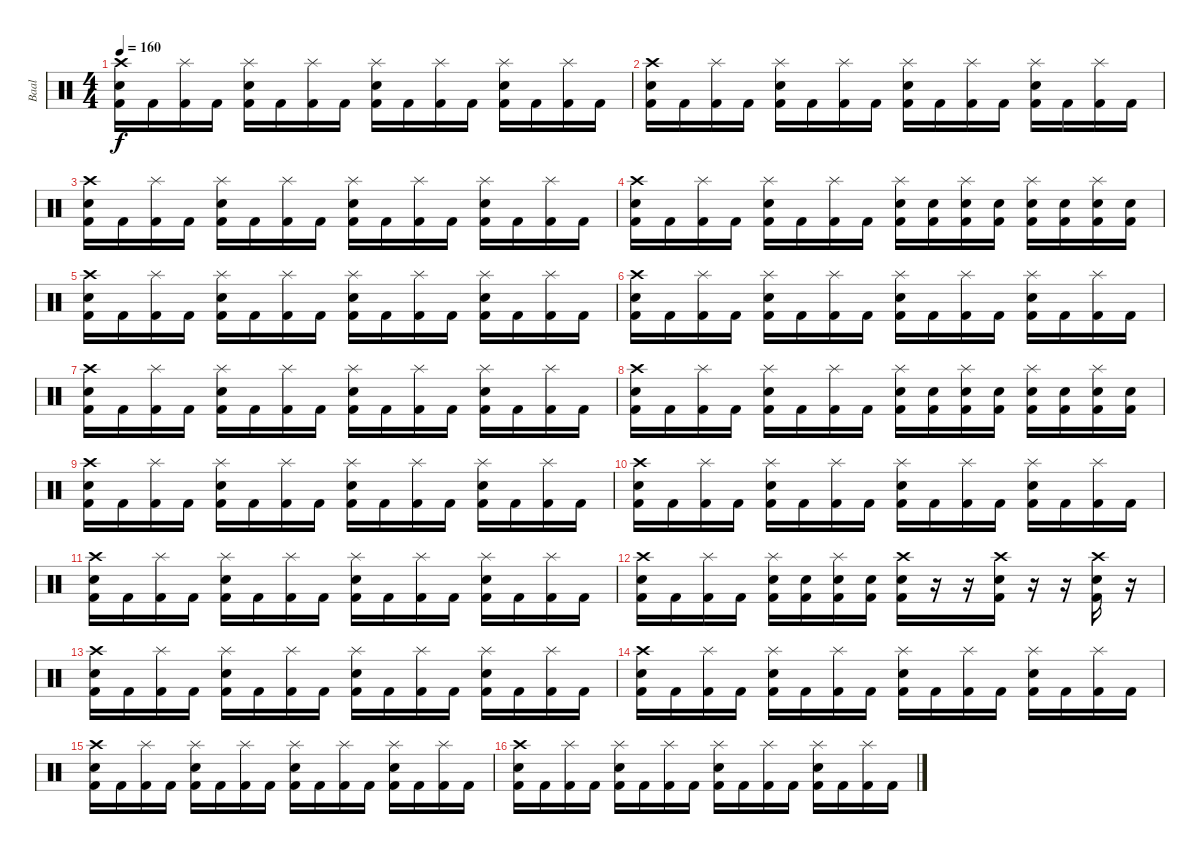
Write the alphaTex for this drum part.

\track ("Baal" "Baal") {instrument percussion}
\staff {score}
\articulation defaults
\ts (4 4)
\tempo 160
\clef neutral
\ks c
("Crash high (hit)" "Electric Snare (hit)" "Kick (hit) 2").16{dy f} "Kick (hit) 2".16 ("Splash (hit)" "Kick (hit) 2").16 "Kick (hit) 2".16 ("Splash (hit)" "Electric Snare (hit)" "Kick (hit) 2").16 "Kick (hit) 2".16 ("Splash (hit)" "Kick (hit) 2").16 "Kick (hit) 2".16 ("Splash (hit)" "Electric Snare (hit)" "Kick (hit) 2").16 "Kick (hit) 2".16 ("Splash (hit)" "Kick (hit) 2").16 "Kick (hit) 2".16 ("Splash (hit)" "Electric Snare (hit)" "Kick (hit) 2").16 "Kick (hit) 2".16 ("Splash (hit)" "Kick (hit) 2").16 "Kick (hit) 2".16 |
("Crash high (hit)" "Electric Snare (hit)" "Kick (hit) 2").16 "Kick (hit) 2".16 ("Splash (hit)" "Kick (hit) 2").16 "Kick (hit) 2".16 ("Splash (hit)" "Electric Snare (hit)" "Kick (hit) 2").16 "Kick (hit) 2".16 ("Splash (hit)" "Kick (hit) 2").16 "Kick (hit) 2".16 ("Splash (hit)" "Electric Snare (hit)" "Kick (hit) 2").16 "Kick (hit) 2".16 ("Splash (hit)" "Kick (hit) 2").16 "Kick (hit) 2".16 ("Splash (hit)" "Electric Snare (hit)" "Kick (hit) 2").16 "Kick (hit) 2".16 ("Splash (hit)" "Kick (hit) 2").16 "Kick (hit) 2".16 |
("Crash high (hit)" "Electric Snare (hit)" "Kick (hit) 2").16 "Kick (hit) 2".16 ("Splash (hit)" "Kick (hit) 2").16 "Kick (hit) 2".16 ("Splash (hit)" "Electric Snare (hit)" "Kick (hit) 2").16 "Kick (hit) 2".16 ("Splash (hit)" "Kick (hit) 2").16 "Kick (hit) 2".16 ("Splash (hit)" "Electric Snare (hit)" "Kick (hit) 2").16 "Kick (hit) 2".16 ("Splash (hit)" "Kick (hit) 2").16 "Kick (hit) 2".16 ("Splash (hit)" "Electric Snare (hit)" "Kick (hit) 2").16 "Kick (hit) 2".16 ("Splash (hit)" "Kick (hit) 2").16 "Kick (hit) 2".16 |
("Crash high (hit)" "Electric Snare (hit)" "Kick (hit) 2").16 "Kick (hit) 2".16 ("Splash (hit)" "Kick (hit) 2").16 "Kick (hit) 2".16 ("Splash (hit)" "Electric Snare (hit)" "Kick (hit) 2").16 "Kick (hit) 2".16 ("Splash (hit)" "Kick (hit) 2").16 "Kick (hit) 2".16 ("Splash (hit)" "Electric Snare (hit)" "Kick (hit) 2").16 ("Electric Snare (hit)" "Kick (hit) 2").16 ("Splash (hit)" "Electric Snare (hit)" "Kick (hit) 2").16 ("Electric Snare (hit)" "Kick (hit) 2").16 ("Splash (hit)" "Electric Snare (hit)" "Kick (hit) 2").16 ("Electric Snare (hit)" "Kick (hit) 2").16 ("Splash (hit)" "Electric Snare (hit)" "Kick (hit) 2").16 ("Electric Snare (hit)" "Kick (hit) 2").16 |
("Crash high (hit)" "Electric Snare (hit)" "Kick (hit) 2").16 "Kick (hit) 2".16 ("Splash (hit)" "Kick (hit) 2").16 "Kick (hit) 2".16 ("Splash (hit)" "Electric Snare (hit)" "Kick (hit) 2").16 "Kick (hit) 2".16 ("Splash (hit)" "Kick (hit) 2").16 "Kick (hit) 2".16 ("Splash (hit)" "Electric Snare (hit)" "Kick (hit) 2").16 "Kick (hit) 2".16 ("Splash (hit)" "Kick (hit) 2").16 "Kick (hit) 2".16 ("Splash (hit)" "Electric Snare (hit)" "Kick (hit) 2").16 "Kick (hit) 2".16 ("Splash (hit)" "Kick (hit) 2").16 "Kick (hit) 2".16 |
("Crash high (hit)" "Electric Snare (hit)" "Kick (hit) 2").16 "Kick (hit) 2".16 ("Splash (hit)" "Kick (hit) 2").16 "Kick (hit) 2".16 ("Splash (hit)" "Electric Snare (hit)" "Kick (hit) 2").16 "Kick (hit) 2".16 ("Splash (hit)" "Kick (hit) 2").16 "Kick (hit) 2".16 ("Splash (hit)" "Electric Snare (hit)" "Kick (hit) 2").16 "Kick (hit) 2".16 ("Splash (hit)" "Kick (hit) 2").16 "Kick (hit) 2".16 ("Splash (hit)" "Electric Snare (hit)" "Kick (hit) 2").16 "Kick (hit) 2".16 ("Splash (hit)" "Kick (hit) 2").16 "Kick (hit) 2".16 |
("Crash high (hit)" "Electric Snare (hit)" "Kick (hit) 2").16 "Kick (hit) 2".16 ("Splash (hit)" "Kick (hit) 2").16 "Kick (hit) 2".16 ("Splash (hit)" "Electric Snare (hit)" "Kick (hit) 2").16 "Kick (hit) 2".16 ("Splash (hit)" "Kick (hit) 2").16 "Kick (hit) 2".16 ("Splash (hit)" "Electric Snare (hit)" "Kick (hit) 2").16 "Kick (hit) 2".16 ("Splash (hit)" "Kick (hit) 2").16 "Kick (hit) 2".16 ("Splash (hit)" "Electric Snare (hit)" "Kick (hit) 2").16 "Kick (hit) 2".16 ("Splash (hit)" "Kick (hit) 2").16 "Kick (hit) 2".16 |
("Crash high (hit)" "Electric Snare (hit)" "Kick (hit) 2").16 "Kick (hit) 2".16 ("Splash (hit)" "Kick (hit) 2").16 "Kick (hit) 2".16 ("Splash (hit)" "Electric Snare (hit)" "Kick (hit) 2").16 "Kick (hit) 2".16 ("Splash (hit)" "Kick (hit) 2").16 "Kick (hit) 2".16 ("Splash (hit)" "Electric Snare (hit)" "Kick (hit) 2").16 ("Electric Snare (hit)" "Kick (hit) 2").16 ("Splash (hit)" "Electric Snare (hit)" "Kick (hit) 2").16 ("Electric Snare (hit)" "Kick (hit) 2").16 ("Splash (hit)" "Electric Snare (hit)" "Kick (hit) 2").16 ("Electric Snare (hit)" "Kick (hit) 2").16 ("Splash (hit)" "Electric Snare (hit)" "Kick (hit) 2").16 ("Electric Snare (hit)" "Kick (hit) 2").16 |
("Crash high (hit)" "Electric Snare (hit)" "Kick (hit) 2").16 "Kick (hit) 2".16 ("Splash (hit)" "Kick (hit) 2").16 "Kick (hit) 2".16 ("Splash (hit)" "Electric Snare (hit)" "Kick (hit) 2").16 "Kick (hit) 2".16 ("Splash (hit)" "Kick (hit) 2").16 "Kick (hit) 2".16 ("Splash (hit)" "Electric Snare (hit)" "Kick (hit) 2").16 "Kick (hit) 2".16 ("Splash (hit)" "Kick (hit) 2").16 "Kick (hit) 2".16 ("Splash (hit)" "Electric Snare (hit)" "Kick (hit) 2").16 "Kick (hit) 2".16 ("Splash (hit)" "Kick (hit) 2").16 "Kick (hit) 2".16 |
("Crash high (hit)" "Electric Snare (hit)" "Kick (hit) 2").16 "Kick (hit) 2".16 ("Splash (hit)" "Kick (hit) 2").16 "Kick (hit) 2".16 ("Splash (hit)" "Electric Snare (hit)" "Kick (hit) 2").16 "Kick (hit) 2".16 ("Splash (hit)" "Kick (hit) 2").16 "Kick (hit) 2".16 ("Splash (hit)" "Electric Snare (hit)" "Kick (hit) 2").16 "Kick (hit) 2".16 ("Splash (hit)" "Kick (hit) 2").16 "Kick (hit) 2".16 ("Splash (hit)" "Electric Snare (hit)" "Kick (hit) 2").16 "Kick (hit) 2".16 ("Splash (hit)" "Kick (hit) 2").16 "Kick (hit) 2".16 |
("Crash high (hit)" "Electric Snare (hit)" "Kick (hit) 2").16 "Kick (hit) 2".16 ("Splash (hit)" "Kick (hit) 2").16 "Kick (hit) 2".16 ("Splash (hit)" "Electric Snare (hit)" "Kick (hit) 2").16 "Kick (hit) 2".16 ("Splash (hit)" "Kick (hit) 2").16 "Kick (hit) 2".16 ("Splash (hit)" "Electric Snare (hit)" "Kick (hit) 2").16 "Kick (hit) 2".16 ("Splash (hit)" "Kick (hit) 2").16 "Kick (hit) 2".16 ("Splash (hit)" "Electric Snare (hit)" "Kick (hit) 2").16 "Kick (hit) 2".16 ("Splash (hit)" "Kick (hit) 2").16 "Kick (hit) 2".16 |
("Crash high (hit)" "Electric Snare (hit)" "Kick (hit) 2").16 "Kick (hit) 2".16 ("Splash (hit)" "Kick (hit) 2").16 "Kick (hit) 2".16 ("Splash (hit)" "Electric Snare (hit)" "Kick (hit) 2").16 ("Electric Snare (hit)" "Kick (hit) 2").16 ("Splash (hit)" "Electric Snare (hit)" "Kick (hit) 2").16 ("Electric Snare (hit)" "Kick (hit) 2").16 ("Crash high (hit)" "Electric Snare (hit)" "Kick (hit) 2").16 r.16 r.16 ("Crash high (hit)" "Electric Snare (hit)" "Kick (hit) 2").16 r.16 r.16 ("Crash high (hit)" "Electric Snare (hit)" "Kick (hit) 2").16 r.16 |
("Crash high (hit)" "Electric Snare (hit)" "Kick (hit) 2").16 "Kick (hit) 2".16 ("Splash (hit)" "Kick (hit) 2").16 "Kick (hit) 2".16 ("Splash (hit)" "Electric Snare (hit)" "Kick (hit) 2").16 "Kick (hit) 2".16 ("Splash (hit)" "Kick (hit) 2").16 "Kick (hit) 2".16 ("Splash (hit)" "Electric Snare (hit)" "Kick (hit) 2").16 "Kick (hit) 2".16 ("Splash (hit)" "Kick (hit) 2").16 "Kick (hit) 2".16 ("Splash (hit)" "Electric Snare (hit)" "Kick (hit) 2").16 "Kick (hit) 2".16 ("Splash (hit)" "Kick (hit) 2").16 "Kick (hit) 2".16 |
("Crash high (hit)" "Electric Snare (hit)" "Kick (hit) 2").16 "Kick (hit) 2".16 ("Splash (hit)" "Kick (hit) 2").16 "Kick (hit) 2".16 ("Splash (hit)" "Electric Snare (hit)" "Kick (hit) 2").16 "Kick (hit) 2".16 ("Splash (hit)" "Kick (hit) 2").16 "Kick (hit) 2".16 ("Splash (hit)" "Electric Snare (hit)" "Kick (hit) 2").16 "Kick (hit) 2".16 ("Splash (hit)" "Kick (hit) 2").16 "Kick (hit) 2".16 ("Splash (hit)" "Electric Snare (hit)" "Kick (hit) 2").16 "Kick (hit) 2".16 ("Splash (hit)" "Kick (hit) 2").16 "Kick (hit) 2".16 |
("Crash high (hit)" "Electric Snare (hit)" "Kick (hit) 2").16 "Kick (hit) 2".16 ("Splash (hit)" "Kick (hit) 2").16 "Kick (hit) 2".16 ("Splash (hit)" "Electric Snare (hit)" "Kick (hit) 2").16 "Kick (hit) 2".16 ("Splash (hit)" "Kick (hit) 2").16 "Kick (hit) 2".16 ("Splash (hit)" "Electric Snare (hit)" "Kick (hit) 2").16 "Kick (hit) 2".16 ("Splash (hit)" "Kick (hit) 2").16 "Kick (hit) 2".16 ("Splash (hit)" "Electric Snare (hit)" "Kick (hit) 2").16 "Kick (hit) 2".16 ("Splash (hit)" "Kick (hit) 2").16 "Kick (hit) 2".16 |
("Crash high (hit)" "Electric Snare (hit)" "Kick (hit) 2").16 "Kick (hit) 2".16 ("Splash (hit)" "Kick (hit) 2").16 "Kick (hit) 2".16 ("Splash (hit)" "Electric Snare (hit)" "Kick (hit) 2").16 "Kick (hit) 2".16 ("Splash (hit)" "Kick (hit) 2").16 "Kick (hit) 2".16 ("Splash (hit)" "Electric Snare (hit)" "Kick (hit) 2").16 "Kick (hit) 2".16 ("Splash (hit)" "Kick (hit) 2").16 "Kick (hit) 2".16 ("Splash (hit)" "Electric Snare (hit)" "Kick (hit) 2").16 "Kick (hit) 2".16 ("Splash (hit)" "Kick (hit) 2").16 "Kick (hit) 2".16
